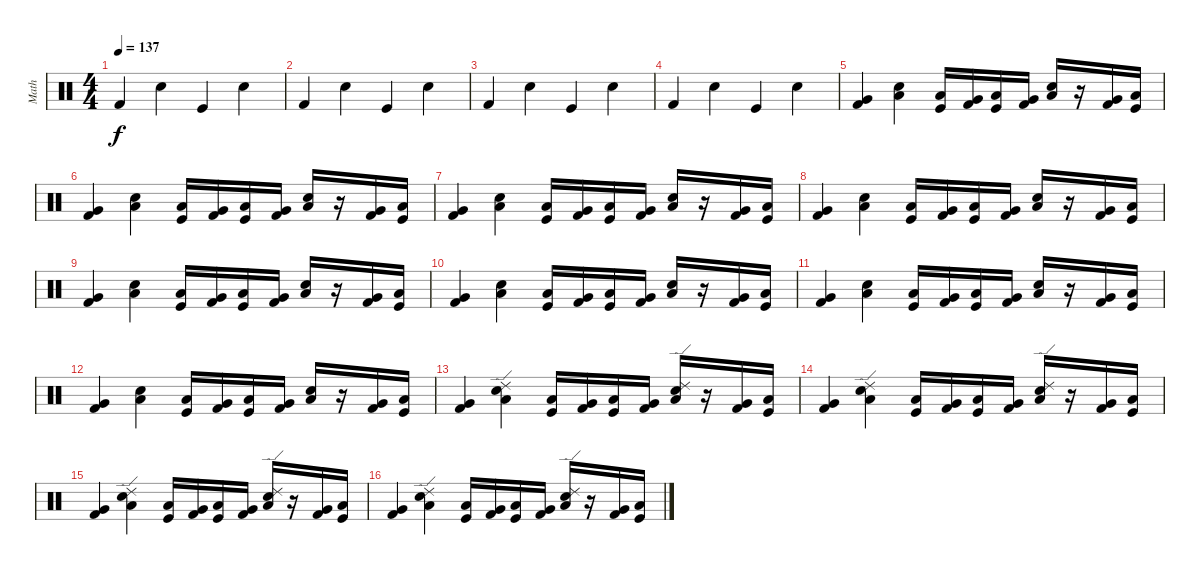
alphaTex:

\track ("Math" "Math") {instrument percussion}
\staff {score}
\articulation defaults
\ts (4 4)
\tempo 137
\clef neutral
\ks c "Kick (hit) 2".4{dy f} "Electric Snare (hit)".4 "Kick (hit)".4 "Electric Snare (hit)".4
|
"Kick (hit) 2".4 "Electric Snare (hit)".4 "Kick (hit)".4 "Electric Snare (hit)".4 |
"Kick (hit) 2".4 "Electric Snare (hit)".4 "Kick (hit)".4 "Electric Snare (hit)".4 |
"Kick (hit) 2".4 "Electric Snare (hit)".4 "Kick (hit)".4 "Electric Snare (hit)".4 |
("Kick (hit) 2" "Very Low Tom (hit)").4 ("Electric Snare (hit)" "Low Floor Tom (hit)").4 ("Kick (hit)" "Low Tom (hit)").16 ("Kick (hit) 2" "Very Low Tom (hit)").16 ("Kick (hit)" "Low Tom (hit)").16 ("Kick (hit) 2" "Very Low Tom (hit)").16 ("Electric Snare (hit)" "Low Floor Tom (hit)").16 r.16 ("Kick (hit) 2" "Very Low Tom (hit)").16 ("Kick (hit)" "Low Tom (hit)").16 |
("Kick (hit) 2" "Very Low Tom (hit)").4 ("Electric Snare (hit)" "Low Floor Tom (hit)").4 ("Kick (hit)" "Low Tom (hit)").16 ("Kick (hit) 2" "Very Low Tom (hit)").16 ("Kick (hit)" "Low Tom (hit)").16 ("Kick (hit) 2" "Very Low Tom (hit)").16 ("Electric Snare (hit)" "Low Floor Tom (hit)").16 r.16 ("Kick (hit) 2" "Very Low Tom (hit)").16 ("Kick (hit)" "Low Tom (hit)").16 |
("Kick (hit) 2" "Very Low Tom (hit)").4 ("Electric Snare (hit)" "Low Floor Tom (hit)").4 ("Kick (hit)" "Low Tom (hit)").16 ("Kick (hit) 2" "Very Low Tom (hit)").16 ("Kick (hit)" "Low Tom (hit)").16 ("Kick (hit) 2" "Very Low Tom (hit)").16 ("Electric Snare (hit)" "Low Floor Tom (hit)").16 r.16 ("Kick (hit) 2" "Very Low Tom (hit)").16 ("Kick (hit)" "Low Tom (hit)").16 |
("Kick (hit) 2" "Very Low Tom (hit)").4 ("Electric Snare (hit)" "Low Floor Tom (hit)").4 ("Kick (hit)" "Low Tom (hit)").16 ("Kick (hit) 2" "Very Low Tom (hit)").16 ("Kick (hit)" "Low Tom (hit)").16 ("Kick (hit) 2" "Very Low Tom (hit)").16 ("Electric Snare (hit)" "Low Floor Tom (hit)").16 r.16 ("Kick (hit) 2" "Very Low Tom (hit)").16 ("Kick (hit)" "Low Tom (hit)").16 |
("Kick (hit) 2" "Very Low Tom (hit)").4 ("Electric Snare (hit)" "Low Floor Tom (hit)").4 ("Kick (hit)" "Low Tom (hit)").16 ("Kick (hit) 2" "Very Low Tom (hit)").16 ("Kick (hit)" "Low Tom (hit)").16 ("Kick (hit) 2" "Very Low Tom (hit)").16 ("Electric Snare (hit)" "Low Floor Tom (hit)").16 r.16 ("Kick (hit) 2" "Very Low Tom (hit)").16 ("Kick (hit)" "Low Tom (hit)").16 |
("Kick (hit) 2" "Very Low Tom (hit)").4 ("Electric Snare (hit)" "Low Floor Tom (hit)").4 ("Kick (hit)" "Low Tom (hit)").16 ("Kick (hit) 2" "Very Low Tom (hit)").16 ("Kick (hit)" "Low Tom (hit)").16 ("Kick (hit) 2" "Very Low Tom (hit)").16 ("Electric Snare (hit)" "Low Floor Tom (hit)").16 r.16 ("Kick (hit) 2" "Very Low Tom (hit)").16 ("Kick (hit)" "Low Tom (hit)").16 |
("Kick (hit) 2" "Very Low Tom (hit)").4 ("Electric Snare (hit)" "Low Floor Tom (hit)").4 ("Kick (hit)" "Low Tom (hit)").16 ("Kick (hit) 2" "Very Low Tom (hit)").16 ("Kick (hit)" "Low Tom (hit)").16 ("Kick (hit) 2" "Very Low Tom (hit)").16 ("Electric Snare (hit)" "Low Floor Tom (hit)").16 r.16 ("Kick (hit) 2" "Very Low Tom (hit)").16 ("Kick (hit)" "Low Tom (hit)").16 |
("Kick (hit) 2" "Very Low Tom (hit)").4 ("Electric Snare (hit)" "Low Floor Tom (hit)").4 ("Kick (hit)" "Low Tom (hit)").16 ("Kick (hit) 2" "Very Low Tom (hit)").16 ("Kick (hit)" "Low Tom (hit)").16 ("Kick (hit) 2" "Very Low Tom (hit)").16 ("Electric Snare (hit)" "Low Floor Tom (hit)").16 r.16 ("Kick (hit) 2" "Very Low Tom (hit)").16 ("Kick (hit)" "Low Tom (hit)").16 |
("Kick (hit) 2" "Very Low Tom (hit)").4 ("Electric Snare (hit)" "Low Floor Tom (hit)" "Ride (edge) 2").4 ("Kick (hit)" "Low Tom (hit)").16 ("Kick (hit) 2" "Very Low Tom (hit)").16 ("Kick (hit)" "Low Tom (hit)").16 ("Kick (hit) 2" "Very Low Tom (hit)").16 ("Electric Snare (hit)" "Low Floor Tom (hit)" "Ride (edge) 2").16 r.16 ("Kick (hit) 2" "Very Low Tom (hit)").16 ("Kick (hit)" "Low Tom (hit)").16 |
("Kick (hit) 2" "Very Low Tom (hit)").4 ("Electric Snare (hit)" "Low Floor Tom (hit)" "Ride (edge) 2").4 ("Kick (hit)" "Low Tom (hit)").16 ("Kick (hit) 2" "Very Low Tom (hit)").16 ("Kick (hit)" "Low Tom (hit)").16 ("Kick (hit) 2" "Very Low Tom (hit)").16 ("Electric Snare (hit)" "Low Floor Tom (hit)" "Ride (edge) 2").16 r.16 ("Kick (hit) 2" "Very Low Tom (hit)").16 ("Kick (hit)" "Low Tom (hit)").16 |
("Kick (hit) 2" "Very Low Tom (hit)").4 ("Electric Snare (hit)" "Low Floor Tom (hit)" "Ride (edge) 2").4 ("Kick (hit)" "Low Tom (hit)").16 ("Kick (hit) 2" "Very Low Tom (hit)").16 ("Kick (hit)" "Low Tom (hit)").16 ("Kick (hit) 2" "Very Low Tom (hit)").16 ("Electric Snare (hit)" "Low Floor Tom (hit)" "Ride (edge) 2").16 r.16 ("Kick (hit) 2" "Very Low Tom (hit)").16 ("Kick (hit)" "Low Tom (hit)").16 |
("Kick (hit) 2" "Very Low Tom (hit)").4 ("Electric Snare (hit)" "Low Floor Tom (hit)" "Ride (edge) 2").4 ("Kick (hit)" "Low Tom (hit)").16 ("Kick (hit) 2" "Very Low Tom (hit)").16 ("Kick (hit)" "Low Tom (hit)").16 ("Kick (hit) 2" "Very Low Tom (hit)").16 ("Electric Snare (hit)" "Low Floor Tom (hit)" "Ride (edge) 2").16 r.16 ("Kick (hit) 2" "Very Low Tom (hit)").16 ("Kick (hit)" "Low Tom (hit)").16
